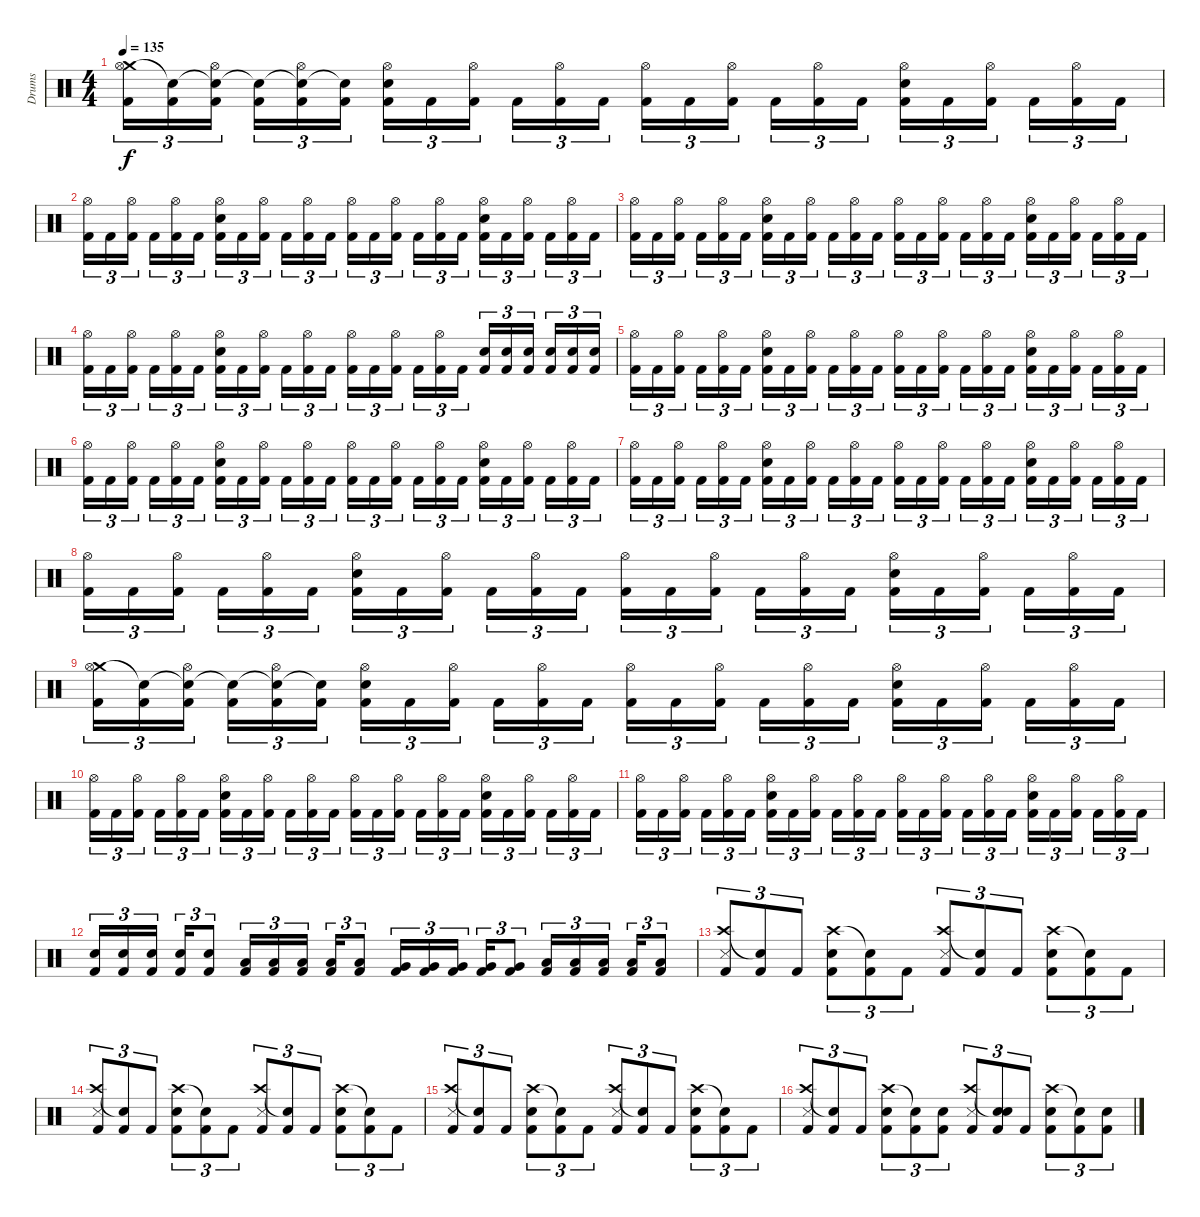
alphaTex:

\track ("Drums" "Drums") {instrument percussion}
\staff {score}
\articulation defaults
\ts (4 4)
\tempo 135
\clef neutral
\ks c
("Crash medium (hit)" "Hi-Hat (open)" "Kick (hit) 2").16{tu (3 2) dy f} ("Snare (hit)"{t} "Kick (hit) 2").16{tu (3 2)} ("Snare (hit)"{t} "Hi-Hat (open)" "Kick (hit) 2").16{tu (3 2)} ("Snare (hit)"{t} "Kick (hit) 2").16{tu (3 2)} ("Snare (hit)"{t} "Hi-Hat (open)" "Kick (hit) 2").16{tu (3 2)} ("Snare (hit)"{t} "Kick (hit) 2").16{tu (3 2)} ("Hi-Hat (open)" "Electric Snare (hit)" "Kick (hit) 2").16{tu (3 2)} "Kick (hit) 2".16{tu (3 2)} ("Hi-Hat (open)" "Kick (hit) 2").16{tu (3 2)} "Kick (hit) 2".16{tu (3 2)} ("Hi-Hat (open)" "Kick (hit) 2").16{tu (3 2)} "Kick (hit) 2".16{tu (3 2)} ("Hi-Hat (open)" "Kick (hit) 2").16{tu (3 2)} "Kick (hit) 2".16{tu (3 2)} ("Hi-Hat (open)" "Kick (hit) 2").16{tu (3 2)} "Kick (hit) 2".16{tu (3 2)} ("Hi-Hat (open)" "Kick (hit) 2").16{tu (3 2)} "Kick (hit) 2".16{tu (3 2)} ("Hi-Hat (open)" "Electric Snare (hit)" "Kick (hit) 2").16{tu (3 2)} "Kick (hit) 2".16{tu (3 2)} ("Hi-Hat (open)" "Kick (hit) 2").16{tu (3 2)} "Kick (hit) 2".16{tu (3 2)} ("Hi-Hat (open)" "Kick (hit) 2").16{tu (3 2)} "Kick (hit) 2".16{tu (3 2)} |
("Hi-Hat (open)" "Kick (hit) 2").16{tu (3 2)} "Kick (hit) 2".16{tu (3 2)} ("Hi-Hat (open)" "Kick (hit) 2").16{tu (3 2)} "Kick (hit) 2".16{tu (3 2)} ("Hi-Hat (open)" "Kick (hit) 2").16{tu (3 2)} "Kick (hit) 2".16{tu (3 2)} ("Hi-Hat (open)" "Electric Snare (hit)" "Kick (hit) 2").16{tu (3 2)} "Kick (hit) 2".16{tu (3 2)} ("Hi-Hat (open)" "Kick (hit) 2").16{tu (3 2)} "Kick (hit) 2".16{tu (3 2)} ("Hi-Hat (open)" "Kick (hit) 2").16{tu (3 2)} "Kick (hit) 2".16{tu (3 2)} ("Hi-Hat (open)" "Kick (hit) 2").16{tu (3 2)} "Kick (hit) 2".16{tu (3 2)} ("Hi-Hat (open)" "Kick (hit) 2").16{tu (3 2)} "Kick (hit) 2".16{tu (3 2)} ("Hi-Hat (open)" "Kick (hit) 2").16{tu (3 2)} "Kick (hit) 2".16{tu (3 2)} ("Hi-Hat (open)" "Electric Snare (hit)" "Kick (hit) 2").16{tu (3 2)} "Kick (hit) 2".16{tu (3 2)} ("Hi-Hat (open)" "Kick (hit) 2").16{tu (3 2)} "Kick (hit) 2".16{tu (3 2)} ("Hi-Hat (open)" "Kick (hit) 2").16{tu (3 2)} "Kick (hit) 2".16{tu (3 2)} |
("Hi-Hat (open)" "Kick (hit) 2").16{tu (3 2)} "Kick (hit) 2".16{tu (3 2)} ("Hi-Hat (open)" "Kick (hit) 2").16{tu (3 2)} "Kick (hit) 2".16{tu (3 2)} ("Hi-Hat (open)" "Kick (hit) 2").16{tu (3 2)} "Kick (hit) 2".16{tu (3 2)} ("Hi-Hat (open)" "Electric Snare (hit)" "Kick (hit) 2").16{tu (3 2)} "Kick (hit) 2".16{tu (3 2)} ("Hi-Hat (open)" "Kick (hit) 2").16{tu (3 2)} "Kick (hit) 2".16{tu (3 2)} ("Hi-Hat (open)" "Kick (hit) 2").16{tu (3 2)} "Kick (hit) 2".16{tu (3 2)} ("Hi-Hat (open)" "Kick (hit) 2").16{tu (3 2)} "Kick (hit) 2".16{tu (3 2)} ("Hi-Hat (open)" "Kick (hit) 2").16{tu (3 2)} "Kick (hit) 2".16{tu (3 2)} ("Hi-Hat (open)" "Kick (hit) 2").16{tu (3 2)} "Kick (hit) 2".16{tu (3 2)} ("Hi-Hat (open)" "Electric Snare (hit)" "Kick (hit) 2").16{tu (3 2)} "Kick (hit) 2".16{tu (3 2)} ("Hi-Hat (open)" "Kick (hit) 2").16{tu (3 2)} "Kick (hit) 2".16{tu (3 2)} ("Hi-Hat (open)" "Kick (hit) 2").16{tu (3 2)} "Kick (hit) 2".16{tu (3 2)} |
("Hi-Hat (open)" "Kick (hit) 2").16{tu (3 2)} "Kick (hit) 2".16{tu (3 2)} ("Hi-Hat (open)" "Kick (hit) 2").16{tu (3 2)} "Kick (hit) 2".16{tu (3 2)} ("Hi-Hat (open)" "Kick (hit) 2").16{tu (3 2)} "Kick (hit) 2".16{tu (3 2)} ("Hi-Hat (open)" "Electric Snare (hit)" "Kick (hit) 2").16{tu (3 2)} "Kick (hit) 2".16{tu (3 2)} ("Hi-Hat (open)" "Kick (hit) 2").16{tu (3 2)} "Kick (hit) 2".16{tu (3 2)} ("Hi-Hat (open)" "Kick (hit) 2").16{tu (3 2)} "Kick (hit) 2".16{tu (3 2)} ("Hi-Hat (open)" "Kick (hit) 2").16{tu (3 2)} "Kick (hit) 2".16{tu (3 2)} ("Hi-Hat (open)" "Kick (hit) 2").16{tu (3 2)} "Kick (hit) 2".16{tu (3 2)} ("Hi-Hat (open)" "Kick (hit) 2").16{tu (3 2)} "Kick (hit) 2".16{tu (3 2)} ("Electric Snare (hit)" "Kick (hit) 2").16{tu (3 2)} ("Electric Snare (hit)" "Kick (hit) 2").16{tu (3 2)} ("Electric Snare (hit)" "Kick (hit) 2").16{tu (3 2)} ("Electric Snare (hit)" "Kick (hit) 2").16{tu (3 2)} ("Electric Snare (hit)" "Kick (hit) 2").16{tu (3 2)} ("Electric Snare (hit)" "Kick (hit) 2").16{tu (3 2)} |
("Hi-Hat (open)" "Kick (hit) 2").16{tu (3 2)} "Kick (hit) 2".16{tu (3 2)} ("Hi-Hat (open)" "Kick (hit) 2").16{tu (3 2)} "Kick (hit) 2".16{tu (3 2)} ("Hi-Hat (open)" "Kick (hit) 2").16{tu (3 2)} "Kick (hit) 2".16{tu (3 2)} ("Hi-Hat (open)" "Electric Snare (hit)" "Kick (hit) 2").16{tu (3 2)} "Kick (hit) 2".16{tu (3 2)} ("Hi-Hat (open)" "Kick (hit) 2").16{tu (3 2)} "Kick (hit) 2".16{tu (3 2)} ("Hi-Hat (open)" "Kick (hit) 2").16{tu (3 2)} "Kick (hit) 2".16{tu (3 2)} ("Hi-Hat (open)" "Kick (hit) 2").16{tu (3 2)} "Kick (hit) 2".16{tu (3 2)} ("Hi-Hat (open)" "Kick (hit) 2").16{tu (3 2)} "Kick (hit) 2".16{tu (3 2)} ("Hi-Hat (open)" "Kick (hit) 2").16{tu (3 2)} "Kick (hit) 2".16{tu (3 2)} ("Hi-Hat (open)" "Electric Snare (hit)" "Kick (hit) 2").16{tu (3 2)} "Kick (hit) 2".16{tu (3 2)} ("Hi-Hat (open)" "Kick (hit) 2").16{tu (3 2)} "Kick (hit) 2".16{tu (3 2)} ("Hi-Hat (open)" "Kick (hit) 2").16{tu (3 2)} "Kick (hit) 2".16{tu (3 2)} |
("Hi-Hat (open)" "Kick (hit) 2").16{tu (3 2)} "Kick (hit) 2".16{tu (3 2)} ("Hi-Hat (open)" "Kick (hit) 2").16{tu (3 2)} "Kick (hit) 2".16{tu (3 2)} ("Hi-Hat (open)" "Kick (hit) 2").16{tu (3 2)} "Kick (hit) 2".16{tu (3 2)} ("Hi-Hat (open)" "Electric Snare (hit)" "Kick (hit) 2").16{tu (3 2)} "Kick (hit) 2".16{tu (3 2)} ("Hi-Hat (open)" "Kick (hit) 2").16{tu (3 2)} "Kick (hit) 2".16{tu (3 2)} ("Hi-Hat (open)" "Kick (hit) 2").16{tu (3 2)} "Kick (hit) 2".16{tu (3 2)} ("Hi-Hat (open)" "Kick (hit) 2").16{tu (3 2)} "Kick (hit) 2".16{tu (3 2)} ("Hi-Hat (open)" "Kick (hit) 2").16{tu (3 2)} "Kick (hit) 2".16{tu (3 2)} ("Hi-Hat (open)" "Kick (hit) 2").16{tu (3 2)} "Kick (hit) 2".16{tu (3 2)} ("Hi-Hat (open)" "Electric Snare (hit)" "Kick (hit) 2").16{tu (3 2)} "Kick (hit) 2".16{tu (3 2)} ("Hi-Hat (open)" "Kick (hit) 2").16{tu (3 2)} "Kick (hit) 2".16{tu (3 2)} ("Hi-Hat (open)" "Kick (hit) 2").16{tu (3 2)} "Kick (hit) 2".16{tu (3 2)} |
("Hi-Hat (open)" "Kick (hit) 2").16{tu (3 2)} "Kick (hit) 2".16{tu (3 2)} ("Hi-Hat (open)" "Kick (hit) 2").16{tu (3 2)} "Kick (hit) 2".16{tu (3 2)} ("Hi-Hat (open)" "Kick (hit) 2").16{tu (3 2)} "Kick (hit) 2".16{tu (3 2)} ("Hi-Hat (open)" "Electric Snare (hit)" "Kick (hit) 2").16{tu (3 2)} "Kick (hit) 2".16{tu (3 2)} ("Hi-Hat (open)" "Kick (hit) 2").16{tu (3 2)} "Kick (hit) 2".16{tu (3 2)} ("Hi-Hat (open)" "Kick (hit) 2").16{tu (3 2)} "Kick (hit) 2".16{tu (3 2)} ("Hi-Hat (open)" "Kick (hit) 2").16{tu (3 2)} "Kick (hit) 2".16{tu (3 2)} ("Hi-Hat (open)" "Kick (hit) 2").16{tu (3 2)} "Kick (hit) 2".16{tu (3 2)} ("Hi-Hat (open)" "Kick (hit) 2").16{tu (3 2)} "Kick (hit) 2".16{tu (3 2)} ("Hi-Hat (open)" "Electric Snare (hit)" "Kick (hit) 2").16{tu (3 2)} "Kick (hit) 2".16{tu (3 2)} ("Hi-Hat (open)" "Kick (hit) 2").16{tu (3 2)} "Kick (hit) 2".16{tu (3 2)} ("Hi-Hat (open)" "Kick (hit) 2").16{tu (3 2)} "Kick (hit) 2".16{tu (3 2)} |
("Hi-Hat (open)" "Kick (hit) 2").16{tu (3 2)} "Kick (hit) 2".16{tu (3 2)} ("Hi-Hat (open)" "Kick (hit) 2").16{tu (3 2)} "Kick (hit) 2".16{tu (3 2)} ("Hi-Hat (open)" "Kick (hit) 2").16{tu (3 2)} "Kick (hit) 2".16{tu (3 2)} ("Hi-Hat (open)" "Electric Snare (hit)" "Kick (hit) 2").16{tu (3 2)} "Kick (hit) 2".16{tu (3 2)} ("Hi-Hat (open)" "Kick (hit) 2").16{tu (3 2)} "Kick (hit) 2".16{tu (3 2)} ("Hi-Hat (open)" "Kick (hit) 2").16{tu (3 2)} "Kick (hit) 2".16{tu (3 2)} ("Hi-Hat (open)" "Kick (hit) 2").16{tu (3 2)} "Kick (hit) 2".16{tu (3 2)} ("Hi-Hat (open)" "Kick (hit) 2").16{tu (3 2)} "Kick (hit) 2".16{tu (3 2)} ("Hi-Hat (open)" "Kick (hit) 2").16{tu (3 2)} "Kick (hit) 2".16{tu (3 2)} ("Hi-Hat (open)" "Electric Snare (hit)" "Kick (hit) 2").16{tu (3 2)} "Kick (hit) 2".16{tu (3 2)} ("Hi-Hat (open)" "Kick (hit) 2").16{tu (3 2)} "Kick (hit) 2".16{tu (3 2)} ("Hi-Hat (open)" "Kick (hit) 2").16{tu (3 2)} "Kick (hit) 2".16{tu (3 2)} |
("Crash medium (hit)" "Hi-Hat (open)" "Kick (hit) 2").16{tu (3 2)} ("Snare (hit)"{t} "Kick (hit) 2").16{tu (3 2)} ("Snare (hit)"{t} "Hi-Hat (open)" "Kick (hit) 2").16{tu (3 2)} ("Snare (hit)"{t} "Kick (hit) 2").16{tu (3 2)} ("Snare (hit)"{t} "Hi-Hat (open)" "Kick (hit) 2").16{tu (3 2)} ("Snare (hit)"{t} "Kick (hit) 2").16{tu (3 2)} ("Hi-Hat (open)" "Electric Snare (hit)" "Kick (hit) 2").16{tu (3 2)} "Kick (hit) 2".16{tu (3 2)} ("Hi-Hat (open)" "Kick (hit) 2").16{tu (3 2)} "Kick (hit) 2".16{tu (3 2)} ("Hi-Hat (open)" "Kick (hit) 2").16{tu (3 2)} "Kick (hit) 2".16{tu (3 2)} ("Hi-Hat (open)" "Kick (hit) 2").16{tu (3 2)} "Kick (hit) 2".16{tu (3 2)} ("Hi-Hat (open)" "Kick (hit) 2").16{tu (3 2)} "Kick (hit) 2".16{tu (3 2)} ("Hi-Hat (open)" "Kick (hit) 2").16{tu (3 2)} "Kick (hit) 2".16{tu (3 2)} ("Hi-Hat (open)" "Electric Snare (hit)" "Kick (hit) 2").16{tu (3 2)} "Kick (hit) 2".16{tu (3 2)} ("Hi-Hat (open)" "Kick (hit) 2").16{tu (3 2)} "Kick (hit) 2".16{tu (3 2)} ("Hi-Hat (open)" "Kick (hit) 2").16{tu (3 2)} "Kick (hit) 2".16{tu (3 2)} |
("Hi-Hat (open)" "Kick (hit) 2").16{tu (3 2)} "Kick (hit) 2".16{tu (3 2)} ("Hi-Hat (open)" "Kick (hit) 2").16{tu (3 2)} "Kick (hit) 2".16{tu (3 2)} ("Hi-Hat (open)" "Kick (hit) 2").16{tu (3 2)} "Kick (hit) 2".16{tu (3 2)} ("Hi-Hat (open)" "Electric Snare (hit)" "Kick (hit) 2").16{tu (3 2)} "Kick (hit) 2".16{tu (3 2)} ("Hi-Hat (open)" "Kick (hit) 2").16{tu (3 2)} "Kick (hit) 2".16{tu (3 2)} ("Hi-Hat (open)" "Kick (hit) 2").16{tu (3 2)} "Kick (hit) 2".16{tu (3 2)} ("Hi-Hat (open)" "Kick (hit) 2").16{tu (3 2)} "Kick (hit) 2".16{tu (3 2)} ("Hi-Hat (open)" "Kick (hit) 2").16{tu (3 2)} "Kick (hit) 2".16{tu (3 2)} ("Hi-Hat (open)" "Kick (hit) 2").16{tu (3 2)} "Kick (hit) 2".16{tu (3 2)} ("Hi-Hat (open)" "Electric Snare (hit)" "Kick (hit) 2").16{tu (3 2)} "Kick (hit) 2".16{tu (3 2)} ("Hi-Hat (open)" "Kick (hit) 2").16{tu (3 2)} "Kick (hit) 2".16{tu (3 2)} ("Hi-Hat (open)" "Kick (hit) 2").16{tu (3 2)} "Kick (hit) 2".16{tu (3 2)} |
("Hi-Hat (open)" "Kick (hit) 2").16{tu (3 2)} "Kick (hit) 2".16{tu (3 2)} ("Hi-Hat (open)" "Kick (hit) 2").16{tu (3 2)} "Kick (hit) 2".16{tu (3 2)} ("Hi-Hat (open)" "Kick (hit) 2").16{tu (3 2)} "Kick (hit) 2".16{tu (3 2)} ("Hi-Hat (open)" "Electric Snare (hit)" "Kick (hit) 2").16{tu (3 2)} "Kick (hit) 2".16{tu (3 2)} ("Hi-Hat (open)" "Kick (hit) 2").16{tu (3 2)} "Kick (hit) 2".16{tu (3 2)} ("Hi-Hat (open)" "Kick (hit) 2").16{tu (3 2)} "Kick (hit) 2".16{tu (3 2)} ("Hi-Hat (open)" "Kick (hit) 2").16{tu (3 2)} "Kick (hit) 2".16{tu (3 2)} ("Hi-Hat (open)" "Kick (hit) 2").16{tu (3 2)} "Kick (hit) 2".16{tu (3 2)} ("Hi-Hat (open)" "Kick (hit) 2").16{tu (3 2)} "Kick (hit) 2".16{tu (3 2)} ("Hi-Hat (open)" "Electric Snare (hit)" "Kick (hit) 2").16{tu (3 2)} "Kick (hit) 2".16{tu (3 2)} ("Hi-Hat (open)" "Kick (hit) 2").16{tu (3 2)} "Kick (hit) 2".16{tu (3 2)} ("Hi-Hat (open)" "Kick (hit) 2").16{tu (3 2)} "Kick (hit) 2".16{tu (3 2)} |
("Electric Snare (hit)" "Kick (hit) 2").16{tu (3 2)} ("Electric Snare (hit)" "Kick (hit) 2").16{tu (3 2)} ("Electric Snare (hit)" "Kick (hit) 2").16{tu (3 2)} ("Electric Snare (hit)" "Kick (hit) 2").16{tu (3 2)} ("Electric Snare (hit)" "Kick (hit) 2").8{tu (3 2)} ("Low Floor Tom (hit)" "Kick (hit) 2").16{tu (3 2)} ("Low Floor Tom (hit)" "Kick (hit) 2").16{tu (3 2)} ("Low Floor Tom (hit)" "Kick (hit) 2").16{tu (3 2)} ("Low Floor Tom (hit)" "Kick (hit) 2").16{tu (3 2)} ("Low Floor Tom (hit)" "Kick (hit) 2").8{tu (3 2)} ("Very Low Tom (hit)" "Kick (hit) 2").16{tu (3 2)} ("Very Low Tom (hit)" "Kick (hit) 2").16{tu (3 2)} ("Very Low Tom (hit)" "Kick (hit) 2").16{tu (3 2)} ("Very Low Tom (hit)" "Kick (hit) 2").16{tu (3 2)} ("Very Low Tom (hit)" "Kick (hit) 2").8{tu (3 2)} ("Low Tom (hit)" "Kick (hit) 2").16{tu (3 2)} ("Low Tom (hit)" "Kick (hit) 2").16{tu (3 2)} ("Low Tom (hit)" "Kick (hit) 2").16{tu (3 2)} ("Low Tom (hit)" "Kick (hit) 2").16{tu (3 2)} ("Low Tom (hit)" "Kick (hit) 2").8{tu (3 2)} |
("Crash high (hit)" "Snare (side stick) 3" "Kick (hit) 2").8{tu (3 2)} ("Snare (hit)"{t} "Kick (hit) 2").8{tu (3 2)} "Kick (hit) 2".8{tu (3 2)} ("Crash high (hit)" "Electric Snare (hit)" "Kick (hit) 2").8{tu (3 2)} ("Snare (hit)"{t} "Kick (hit) 2").8{tu (3 2)} "Kick (hit) 2".8{tu (3 2)} ("Crash high (hit)" "Snare (side stick) 3" "Kick (hit) 2").8{tu (3 2)} ("Snare (hit)"{t} "Kick (hit) 2").8{tu (3 2)} "Kick (hit) 2".8{tu (3 2)} ("Crash high (hit)" "Electric Snare (hit)" "Kick (hit) 2").8{tu (3 2)} ("Snare (hit)"{t} "Kick (hit) 2").8{tu (3 2)} "Kick (hit) 2".8{tu (3 2)} |
("Crash high (hit)" "Snare (side stick) 3" "Kick (hit) 2").8{tu (3 2)} ("Snare (hit)"{t} "Kick (hit) 2").8{tu (3 2)} "Kick (hit) 2".8{tu (3 2)} ("Crash high (hit)" "Electric Snare (hit)" "Kick (hit) 2").8{tu (3 2)} ("Snare (hit)"{t} "Kick (hit) 2").8{tu (3 2)} "Kick (hit) 2".8{tu (3 2)} ("Crash high (hit)" "Snare (side stick) 3" "Kick (hit) 2").8{tu (3 2)} ("Snare (hit)"{t} "Kick (hit) 2").8{tu (3 2)} "Kick (hit) 2".8{tu (3 2)} ("Crash high (hit)" "Electric Snare (hit)" "Kick (hit) 2").8{tu (3 2)} ("Snare (hit)"{t} "Kick (hit) 2").8{tu (3 2)} "Kick (hit) 2".8{tu (3 2)} |
("Crash high (hit)" "Snare (side stick) 3" "Kick (hit) 2").8{tu (3 2)} ("Snare (hit)"{t} "Kick (hit) 2").8{tu (3 2)} "Kick (hit) 2".8{tu (3 2)} ("Crash high (hit)" "Electric Snare (hit)" "Kick (hit) 2").8{tu (3 2)} ("Snare (hit)"{t} "Kick (hit) 2").8{tu (3 2)} "Kick (hit) 2".8{tu (3 2)} ("Crash high (hit)" "Snare (side stick) 3" "Kick (hit) 2").8{tu (3 2)} ("Snare (hit)"{t} "Kick (hit) 2").8{tu (3 2)} "Kick (hit) 2".8{tu (3 2)} ("Crash high (hit)" "Electric Snare (hit)" "Kick (hit) 2").8{tu (3 2)} ("Snare (hit)"{t} "Kick (hit) 2").8{tu (3 2)} "Kick (hit) 2".8{tu (3 2)} |
("Crash high (hit)" "Snare (side stick) 3" "Kick (hit) 2").8{tu (3 2)} ("Snare (hit)"{t} "Kick (hit) 2").8{tu (3 2)} "Kick (hit) 2".8{tu (3 2)} ("Crash high (hit)" "Electric Snare (hit)" "Kick (hit) 2").8{tu (3 2)} ("Snare (hit)"{t} "Kick (hit) 2").8{tu (3 2)} ("Electric Snare (hit)" "Kick (hit) 2").8{tu (3 2)} ("Crash high (hit)" "Snare (side stick) 3" "Kick (hit) 2").8{tu (3 2)} ("Snare (hit)"{t} "Electric Snare (hit)" "Kick (hit) 2").8{tu (3 2)} "Kick (hit) 2".8{tu (3 2)} ("Crash high (hit)" "Electric Snare (hit)" "Kick (hit) 2").8{tu (3 2)} ("Snare (hit)"{t} "Kick (hit) 2").8{tu (3 2)} ("Electric Snare (hit)" "Kick (hit) 2").8{tu (3 2)}
